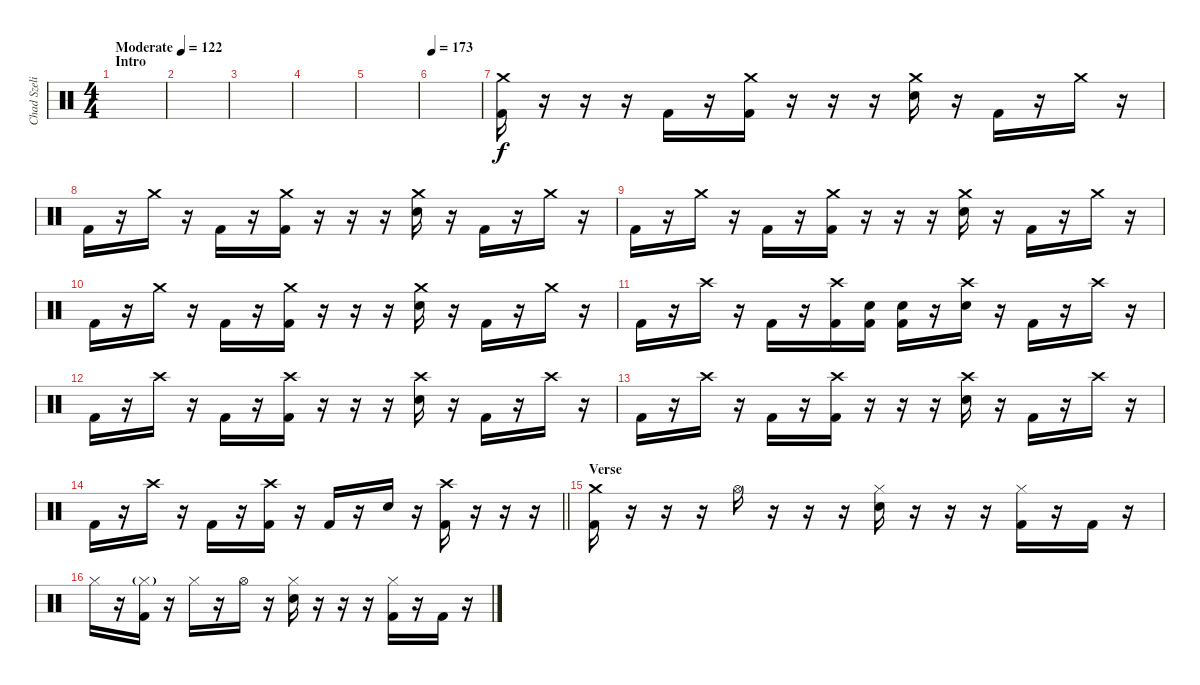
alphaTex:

\track ("Chad Szeliga" "Chad Szeli") {instrument percussion}
\staff {score}
\articulation defaults
\ts (4 4)
\section ("" "Intro")
\tempo (122 "Moderate")
\clef neutral
\ks c
|
|
|
|
|
\tempo 173
|
("Crash medium (hit)" "Kick (hit) 2").16 r.16 r.16 r.16 "Kick (hit) 2".16 r.16 ("Crash medium (hit)" "Kick (hit) 2").16 r.16 r.16 r.16 ("Crash medium (hit)" "Electric Snare (hit)").16 r.16 "Kick (hit) 2".16 r.16 "Crash medium (hit)".16 r.16 |
"Kick (hit) 2".16 r.16 "Crash medium (hit)".16 r.16 "Kick (hit) 2".16 r.16 ("Crash medium (hit)" "Kick (hit) 2").16 r.16 r.16 r.16 ("Crash medium (hit)" "Electric Snare (hit)").16 r.16 "Kick (hit) 2".16 r.16 "Crash medium (hit)".16 r.16 |
"Kick (hit) 2".16 r.16 "Crash medium (hit)".16 r.16 "Kick (hit) 2".16 r.16 ("Crash medium (hit)" "Kick (hit) 2").16 r.16 r.16 r.16 ("Crash medium (hit)" "Electric Snare (hit)").16 r.16 "Kick (hit) 2".16 r.16 "Crash medium (hit)".16 r.16 |
"Kick (hit) 2".16 r.16 "Crash medium (hit)".16 r.16 "Kick (hit) 2".16 r.16 ("Crash medium (hit)" "Kick (hit) 2").16 r.16 r.16 r.16 ("Crash medium (hit)" "Electric Snare (hit)").16 r.16 "Kick (hit) 2".16 r.16 "Crash medium (hit)".16 r.16 |
"Kick (hit) 2".16 r.16 "Crash high (hit)".16 r.16 "Kick (hit) 2".16 r.16 ("Crash high (hit)" "Kick (hit) 2").16 ("Electric Snare (hit)" "Kick (hit) 2").16 ("Electric Snare (hit)" "Kick (hit) 2").16 r.16 ("Crash high (hit)" "Electric Snare (hit)").16 r.16 "Kick (hit) 2".16 r.16 "Crash high (hit)".16 r.16 |
"Kick (hit) 2".16 r.16 "Crash high (hit)".16 r.16 "Kick (hit) 2".16 r.16 ("Crash high (hit)" "Kick (hit) 2").16 r.16 r.16 r.16 ("Crash high (hit)" "Electric Snare (hit)").16 r.16 "Kick (hit) 2".16 r.16 "Crash high (hit)".16 r.16 |
"Kick (hit) 2".16 r.16 "Crash high (hit)".16 r.16 "Kick (hit) 2".16 r.16 ("Crash high (hit)" "Kick (hit) 2").16 r.16 r.16 r.16 ("Crash high (hit)" "Electric Snare (hit)").16 r.16 "Kick (hit) 2".16 r.16 "Crash high (hit)".16 r.16 |
\barLineRight lightlight "Kick (hit) 2".16
r.16 "Crash high (hit)".16 r.16 "Kick (hit) 2".16 r.16 ("Crash high (hit)" "Kick (hit) 2").16 r.16 "Kick (hit) 2".16 r.16 "Electric Snare (hit)".16 r.16 ("Crash high (hit)" "Kick (hit) 2").16 r.16 r.16 r.16 |
\section ("" "Verse")
("Crash medium (hit)" "Kick (hit) 2").16 r.16 r.16 r.16 "Hi-Hat (open)".16 r.16 r.16 r.16 ("Hi-Hat (closed)" "Electric Snare (hit)").16 r.16 r.16 r.16 ("Hi-Hat (closed)" "Kick (hit) 2").16 r.16 "Kick (hit) 2".16 r.16 |
"Hi-Hat (closed)".16 r.16 ("Hi-Hat (closed)"{g} "Kick (hit) 2").16 r.16 "Hi-Hat (closed)".16 r.16 "Hi-Hat (open)".16 r.16 ("Hi-Hat (closed)" "Electric Snare (hit)").16 r.16 r.16 r.16 ("Hi-Hat (closed)" "Kick (hit) 2").16 r.16 "Kick (hit) 2".16 r.16
